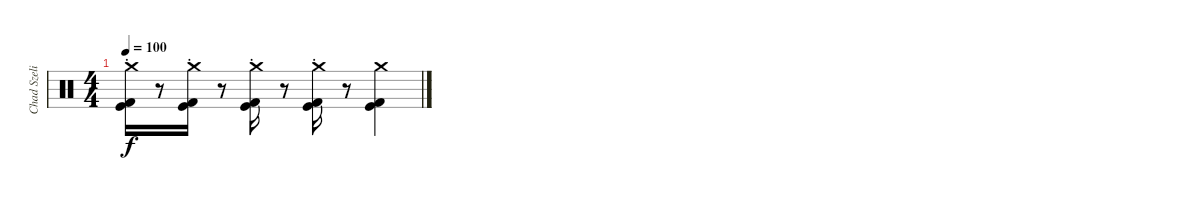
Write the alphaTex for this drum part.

\track ("Chad Szeliga" "Chad Szeli") {instrument percussion}
\staff {score}
\articulation defaults
\ts (4 4)
\tempo 100
\clef neutral
\ks c
("Crash medium (hit)"{st} "Kick (hit) 2" "Kick (hit)").16{dy f} r.8 ("Crash medium (hit)"{st} "Kick (hit) 2" "Kick (hit)").16 r.8 ("Crash medium (hit)"{st} "Kick (hit) 2" "Kick (hit)").16 r.8 ("Crash medium (hit)"{st} "Kick (hit) 2" "Kick (hit)").16 r.8 ("Crash medium (hit)" "Kick (hit) 2" "Kick (hit)").4
